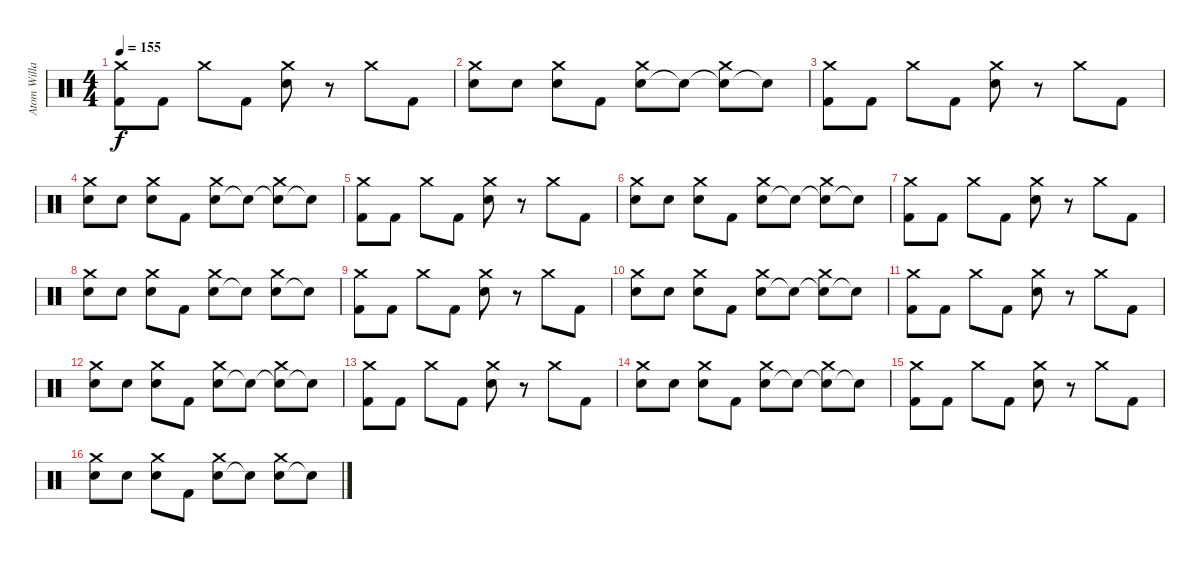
\track ("Atom Willard Drums" "Atom Willa") {instrument percussion}
\staff {score}
\articulation defaults
\ts (4 4)
\tempo 155
\clef neutral
\ks c
("Kick (hit) 2" "Crash medium (hit)").8{dy f} "Kick (hit) 2".8 "Crash medium (hit)".8 "Kick (hit) 2".8 ("Electric Snare (hit)" "Crash medium (hit)").8 r.8 "Crash medium (hit)".8 "Kick (hit) 2".8 |
("Snare (hit)" "Crash medium (hit)").8 "Electric Snare (hit)".8 ("Snare (hit)" "Crash medium (hit)").8 "Kick (hit) 2".8 ("Electric Snare (hit)" "Crash medium (hit)").8 "Snare (hit)"{t}.8 ("Snare (hit)"{t} "Crash medium (hit)").8 "Snare (hit)"{t}.8 |
("Kick (hit) 2" "Crash medium (hit)").8 "Kick (hit) 2".8 "Crash medium (hit)".8 "Kick (hit) 2".8 ("Electric Snare (hit)" "Crash medium (hit)").8 r.8 "Crash medium (hit)".8 "Kick (hit) 2".8 |
("Snare (hit)" "Crash medium (hit)").8 "Electric Snare (hit)".8 ("Snare (hit)" "Crash medium (hit)").8 "Kick (hit) 2".8 ("Electric Snare (hit)" "Crash medium (hit)").8 "Snare (hit)"{t}.8 ("Snare (hit)"{t} "Crash medium (hit)").8 "Snare (hit)"{t}.8 |
("Kick (hit) 2" "Crash medium (hit)").8 "Kick (hit) 2".8 "Crash medium (hit)".8 "Kick (hit) 2".8 ("Electric Snare (hit)" "Crash medium (hit)").8 r.8 "Crash medium (hit)".8 "Kick (hit) 2".8 |
("Snare (hit)" "Crash medium (hit)").8 "Electric Snare (hit)".8 ("Snare (hit)" "Crash medium (hit)").8 "Kick (hit) 2".8 ("Electric Snare (hit)" "Crash medium (hit)").8 "Snare (hit)"{t}.8 ("Snare (hit)"{t} "Crash medium (hit)").8 "Snare (hit)"{t}.8 |
("Kick (hit) 2" "Crash medium (hit)").8 "Kick (hit) 2".8 "Crash medium (hit)".8 "Kick (hit) 2".8 ("Electric Snare (hit)" "Crash medium (hit)").8 r.8 "Crash medium (hit)".8 "Kick (hit) 2".8 |
("Snare (hit)" "Crash medium (hit)").8 "Electric Snare (hit)".8 ("Snare (hit)" "Crash medium (hit)").8 "Kick (hit) 2".8 ("Electric Snare (hit)" "Crash medium (hit)").8 "Snare (hit)"{t}.8 ("Electric Snare (hit)" "Crash medium (hit)").8 "Snare (hit)"{t}.8 |
("Kick (hit) 2" "Crash medium (hit)").8 "Kick (hit) 2".8 "Crash medium (hit)".8 "Kick (hit) 2".8 ("Electric Snare (hit)" "Crash medium (hit)").8 r.8 "Crash medium (hit)".8 "Kick (hit) 2".8 |
("Snare (hit)" "Crash medium (hit)").8 "Electric Snare (hit)".8 ("Snare (hit)" "Crash medium (hit)").8 "Kick (hit) 2".8 ("Electric Snare (hit)" "Crash medium (hit)").8 "Snare (hit)"{t}.8 ("Snare (hit)"{t} "Crash medium (hit)").8 "Snare (hit)"{t}.8 |
("Kick (hit) 2" "Crash medium (hit)").8 "Kick (hit) 2".8 "Crash medium (hit)".8 "Kick (hit) 2".8 ("Electric Snare (hit)" "Crash medium (hit)").8 r.8 "Crash medium (hit)".8 "Kick (hit) 2".8 |
("Snare (hit)" "Crash medium (hit)").8 "Electric Snare (hit)".8 ("Snare (hit)" "Crash medium (hit)").8 "Kick (hit) 2".8 ("Electric Snare (hit)" "Crash medium (hit)").8 "Snare (hit)"{t}.8 ("Snare (hit)"{t} "Crash medium (hit)").8 "Snare (hit)"{t}.8 |
("Kick (hit) 2" "Crash medium (hit)").8 "Kick (hit) 2".8 "Crash medium (hit)".8 "Kick (hit) 2".8 ("Electric Snare (hit)" "Crash medium (hit)").8 r.8 "Crash medium (hit)".8 "Kick (hit) 2".8 |
("Snare (hit)" "Crash medium (hit)").8 "Electric Snare (hit)".8 ("Snare (hit)" "Crash medium (hit)").8 "Kick (hit) 2".8 ("Electric Snare (hit)" "Crash medium (hit)").8 "Snare (hit)"{t}.8 ("Snare (hit)"{t} "Crash medium (hit)").8 "Snare (hit)"{t}.8 |
("Kick (hit) 2" "Crash medium (hit)").8 "Kick (hit) 2".8 "Crash medium (hit)".8 "Kick (hit) 2".8 ("Electric Snare (hit)" "Crash medium (hit)").8 r.8 "Crash medium (hit)".8 "Kick (hit) 2".8 |
("Snare (hit)" "Crash medium (hit)").8 "Electric Snare (hit)".8 ("Snare (hit)" "Crash medium (hit)").8 "Kick (hit) 2".8 ("Electric Snare (hit)" "Crash medium (hit)").8 "Snare (hit)"{t}.8 ("Electric Snare (hit)" "Crash medium (hit)").8 "Snare (hit)"{t}.8
